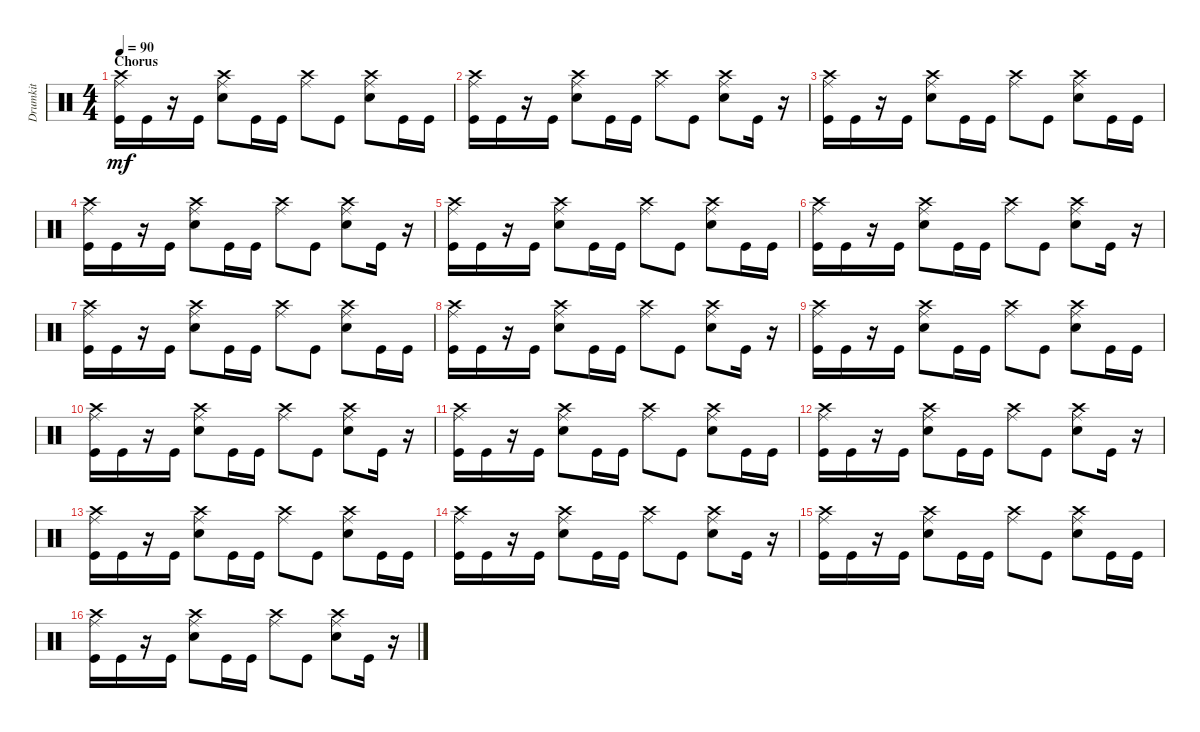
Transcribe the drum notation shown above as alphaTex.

\track ("Drumkit" "Drumkit") {instrument percussion}
\staff {score}
\articulation defaults
\ts (4 4)
\section ("" "Chorus")
\tempo 90
\clef neutral
\ks c
("Kick (hit)" "Crash high (hit)" "Ride (middle)").16{dy mf} "Kick (hit)".16 r.16 "Kick (hit)".16 ("Snare (hit) 2" "Crash high (hit)" "Ride (middle)").8 "Kick (hit)".16 "Kick (hit)".16 ("Crash high (hit)" "Ride (middle)").8 "Kick (hit)".8 ("Snare (hit) 2" "Crash high (hit)" "Ride (middle)").8 "Kick (hit)".16 "Kick (hit)".16 |
("Kick (hit)" "Crash high (hit)" "Ride (middle)").16 "Kick (hit)".16 r.16 "Kick (hit)".16 ("Snare (hit) 2" "Crash high (hit)" "Ride (middle)").8 "Kick (hit)".16 "Kick (hit)".16 ("Crash high (hit)" "Ride (middle)").8 "Kick (hit)".8 ("Snare (hit) 2" "Crash high (hit)" "Ride (middle)").8 "Kick (hit)".16 r.16 |
("Kick (hit)" "Crash high (hit)" "Ride (middle)").16 "Kick (hit)".16 r.16 "Kick (hit)".16 ("Snare (hit) 2" "Crash high (hit)" "Ride (middle)").8 "Kick (hit)".16 "Kick (hit)".16 ("Crash high (hit)" "Ride (middle)").8 "Kick (hit)".8 ("Snare (hit) 2" "Crash high (hit)" "Ride (middle)").8 "Kick (hit)".16 "Kick (hit)".16 |
("Kick (hit)" "Crash high (hit)" "Ride (middle)").16 "Kick (hit)".16 r.16 "Kick (hit)".16 ("Snare (hit) 2" "Crash high (hit)" "Ride (middle)").8 "Kick (hit)".16 "Kick (hit)".16 ("Crash high (hit)" "Ride (middle)").8 "Kick (hit)".8 ("Snare (hit) 2" "Crash high (hit)" "Ride (middle)").8 "Kick (hit)".16 r.16 |
("Kick (hit)" "Crash high (hit)" "Ride (middle)").16 "Kick (hit)".16 r.16 "Kick (hit)".16 ("Snare (hit) 2" "Crash high (hit)" "Ride (middle)").8 "Kick (hit)".16 "Kick (hit)".16 ("Crash high (hit)" "Ride (middle)").8 "Kick (hit)".8 ("Snare (hit) 2" "Crash high (hit)" "Ride (middle)").8 "Kick (hit)".16 "Kick (hit)".16 |
("Kick (hit)" "Crash high (hit)" "Ride (middle)").16 "Kick (hit)".16 r.16 "Kick (hit)".16 ("Snare (hit) 2" "Crash high (hit)" "Ride (middle)").8 "Kick (hit)".16 "Kick (hit)".16 ("Crash high (hit)" "Ride (middle)").8 "Kick (hit)".8 ("Snare (hit) 2" "Crash high (hit)" "Ride (middle)").8 "Kick (hit)".16 r.16 |
("Kick (hit)" "Crash high (hit)" "Ride (middle)").16 "Kick (hit)".16 r.16 "Kick (hit)".16 ("Snare (hit) 2" "Crash high (hit)" "Ride (middle)").8 "Kick (hit)".16 "Kick (hit)".16 ("Crash high (hit)" "Ride (middle)").8 "Kick (hit)".8 ("Snare (hit) 2" "Crash high (hit)" "Ride (middle)").8 "Kick (hit)".16 "Kick (hit)".16 |
("Kick (hit)" "Crash high (hit)" "Ride (middle)").16 "Kick (hit)".16 r.16 "Kick (hit)".16 ("Snare (hit) 2" "Crash high (hit)" "Ride (middle)").8 "Kick (hit)".16 "Kick (hit)".16 ("Crash high (hit)" "Ride (middle)").8 "Kick (hit)".8 ("Snare (hit) 2" "Crash high (hit)" "Ride (middle)").8 "Kick (hit)".16 r.16 |
("Kick (hit)" "Crash high (hit)" "Ride (middle)").16 "Kick (hit)".16 r.16 "Kick (hit)".16 ("Snare (hit) 2" "Crash high (hit)" "Ride (middle)").8 "Kick (hit)".16 "Kick (hit)".16 ("Crash high (hit)" "Ride (middle)").8 "Kick (hit)".8 ("Snare (hit) 2" "Crash high (hit)" "Ride (middle)").8 "Kick (hit)".16 "Kick (hit)".16 |
("Kick (hit)" "Crash high (hit)" "Ride (middle)").16 "Kick (hit)".16 r.16 "Kick (hit)".16 ("Snare (hit) 2" "Crash high (hit)" "Ride (middle)").8 "Kick (hit)".16 "Kick (hit)".16 ("Crash high (hit)" "Ride (middle)").8 "Kick (hit)".8 ("Snare (hit) 2" "Crash high (hit)" "Ride (middle)").8 "Kick (hit)".16 r.16 |
("Kick (hit)" "Crash high (hit)" "Ride (middle)").16 "Kick (hit)".16 r.16 "Kick (hit)".16 ("Snare (hit) 2" "Crash high (hit)" "Ride (middle)").8 "Kick (hit)".16 "Kick (hit)".16 ("Crash high (hit)" "Ride (middle)").8 "Kick (hit)".8 ("Snare (hit) 2" "Crash high (hit)" "Ride (middle)").8 "Kick (hit)".16 "Kick (hit)".16 |
("Kick (hit)" "Crash high (hit)" "Ride (middle)").16 "Kick (hit)".16 r.16 "Kick (hit)".16 ("Snare (hit) 2" "Crash high (hit)" "Ride (middle)").8 "Kick (hit)".16 "Kick (hit)".16 ("Crash high (hit)" "Ride (middle)").8 "Kick (hit)".8 ("Snare (hit) 2" "Crash high (hit)" "Ride (middle)").8 "Kick (hit)".16 r.16 |
("Kick (hit)" "Crash high (hit)" "Ride (middle)").16 "Kick (hit)".16 r.16 "Kick (hit)".16 ("Snare (hit) 2" "Crash high (hit)" "Ride (middle)").8 "Kick (hit)".16 "Kick (hit)".16 ("Crash high (hit)" "Ride (middle)").8 "Kick (hit)".8 ("Snare (hit) 2" "Crash high (hit)" "Ride (middle)").8 "Kick (hit)".16 "Kick (hit)".16 |
("Kick (hit)" "Crash high (hit)" "Ride (middle)").16 "Kick (hit)".16 r.16 "Kick (hit)".16 ("Snare (hit) 2" "Crash high (hit)" "Ride (middle)").8 "Kick (hit)".16 "Kick (hit)".16 ("Crash high (hit)" "Ride (middle)").8 "Kick (hit)".8 ("Snare (hit) 2" "Crash high (hit)" "Ride (middle)").8 "Kick (hit)".16 r.16 |
("Kick (hit)" "Crash high (hit)" "Ride (middle)").16 "Kick (hit)".16 r.16 "Kick (hit)".16 ("Snare (hit) 2" "Crash high (hit)" "Ride (middle)").8 "Kick (hit)".16 "Kick (hit)".16 ("Crash high (hit)" "Ride (middle)").8 "Kick (hit)".8 ("Snare (hit) 2" "Crash high (hit)" "Ride (middle)").8 "Kick (hit)".16 "Kick (hit)".16 |
("Kick (hit)" "Crash high (hit)" "Ride (middle)").16 "Kick (hit)".16 r.16 "Kick (hit)".16 ("Snare (hit) 2" "Crash high (hit)" "Ride (middle)").8 "Kick (hit)".16 "Kick (hit)".16 ("Crash high (hit)" "Ride (middle)").8 "Kick (hit)".8 ("Snare (hit) 2" "Crash high (hit)" "Ride (middle)").8 "Kick (hit)".16 r.16
